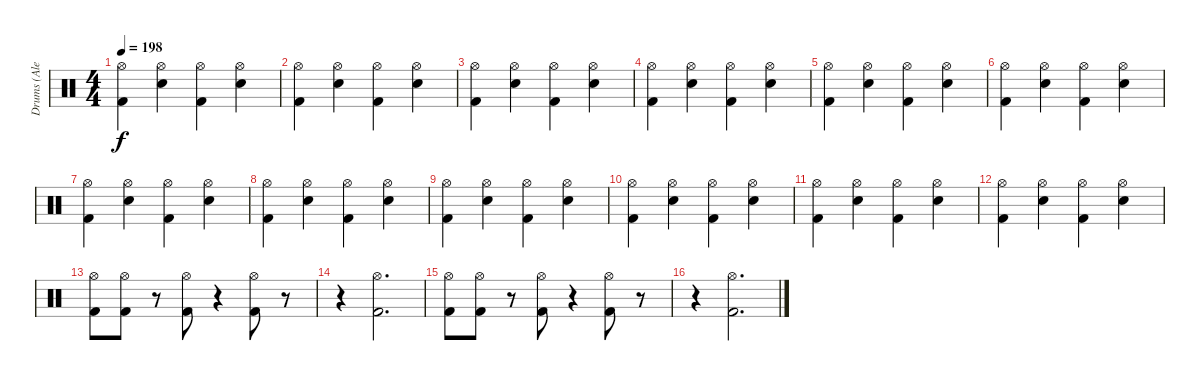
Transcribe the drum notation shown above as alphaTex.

\track ("Drums (Alex Van Halen)" "Drums (Ale") {instrument percussion}
\staff {score}
\articulation defaults
\ts (4 4)
\tempo 198
\clef neutral
\ks c
("Kick (hit) 2" "Hi-Hat (open)").4{dy f} ("Snare (hit) 2" "Hi-Hat (open)").4 ("Kick (hit) 2" "Hi-Hat (open)").4 ("Snare (hit) 2" "Hi-Hat (open)").4 |
("Kick (hit) 2" "Hi-Hat (open)").4 ("Snare (hit) 2" "Hi-Hat (open)").4 ("Kick (hit) 2" "Hi-Hat (open)").4 ("Snare (hit) 2" "Hi-Hat (open)").4 |
("Kick (hit) 2" "Hi-Hat (open)").4 ("Snare (hit) 2" "Hi-Hat (open)").4 ("Kick (hit) 2" "Hi-Hat (open)").4 ("Snare (hit) 2" "Hi-Hat (open)").4 |
("Kick (hit) 2" "Hi-Hat (open)").4 ("Snare (hit) 2" "Hi-Hat (open)").4 ("Kick (hit) 2" "Hi-Hat (open)").4 ("Snare (hit) 2" "Hi-Hat (open)").4 |
("Kick (hit) 2" "Hi-Hat (open)").4 ("Snare (hit) 2" "Hi-Hat (open)").4 ("Kick (hit) 2" "Hi-Hat (open)").4 ("Snare (hit) 2" "Hi-Hat (open)").4 |
("Kick (hit) 2" "Hi-Hat (open)").4 ("Snare (hit) 2" "Hi-Hat (open)").4 ("Kick (hit) 2" "Hi-Hat (open)").4 ("Snare (hit) 2" "Hi-Hat (open)").4 |
("Kick (hit) 2" "Hi-Hat (open)").4 ("Snare (hit) 2" "Hi-Hat (open)").4 ("Kick (hit) 2" "Hi-Hat (open)").4 ("Snare (hit) 2" "Hi-Hat (open)").4 |
("Kick (hit) 2" "Hi-Hat (open)").4 ("Snare (hit) 2" "Hi-Hat (open)").4 ("Kick (hit) 2" "Hi-Hat (open)").4 ("Snare (hit) 2" "Hi-Hat (open)").4 |
("Kick (hit) 2" "Hi-Hat (open)").4 ("Snare (hit) 2" "Hi-Hat (open)").4 ("Kick (hit) 2" "Hi-Hat (open)").4 ("Snare (hit) 2" "Hi-Hat (open)").4 |
("Kick (hit) 2" "Hi-Hat (open)").4 ("Snare (hit) 2" "Hi-Hat (open)").4 ("Kick (hit) 2" "Hi-Hat (open)").4 ("Snare (hit) 2" "Hi-Hat (open)").4 |
("Kick (hit) 2" "Hi-Hat (open)").4 ("Snare (hit) 2" "Hi-Hat (open)").4 ("Kick (hit) 2" "Hi-Hat (open)").4 ("Snare (hit) 2" "Hi-Hat (open)").4 |
("Kick (hit) 2" "Hi-Hat (open)").4 ("Snare (hit) 2" "Hi-Hat (open)").4 ("Kick (hit) 2" "Hi-Hat (open)").4 ("Snare (hit) 2" "Hi-Hat (open)").4 |
("Kick (hit) 2" "Hi-Hat (open)").8 ("Kick (hit) 2" "Hi-Hat (open)").8 r.8 ("Kick (hit) 2" "Hi-Hat (open)").8 r.4 ("Kick (hit) 2" "Hi-Hat (open)").8 r.8 |
r.4 ("Kick (hit) 2" "Hi-Hat (open)").2{d} |
("Kick (hit) 2" "Hi-Hat (open)").8 ("Kick (hit) 2" "Hi-Hat (open)").8 r.8 ("Kick (hit) 2" "Hi-Hat (open)").8 r.4 ("Kick (hit) 2" "Hi-Hat (open)").8 r.8 |
r.4 ("Kick (hit) 2" "Hi-Hat (open)").2{d}
